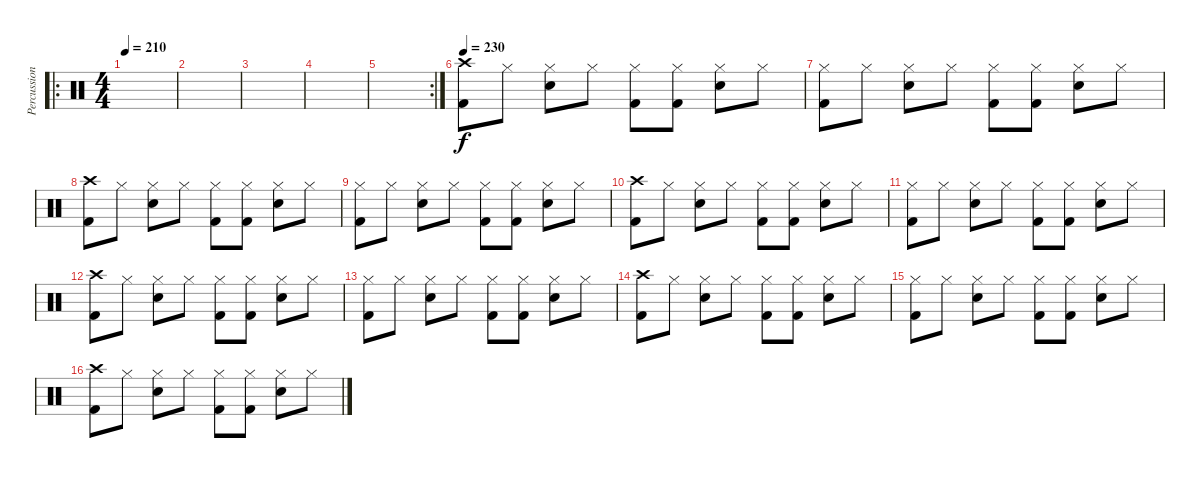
\track ("Percussions" "Percussion") {instrument percussion}
\staff {score}
\articulation defaults
\ro
\ts (4 4)
\tempo 210
\tempo 230
\tempo 210
\clef neutral
\ks c
|
|
|
|
\rc 2
|
\tempo 230
("Crash high (hit)" "Kick (hit) 2").8 "Hi-Hat (closed)".8 ("Hi-Hat (closed)" "Electric Snare (hit)").8 "Hi-Hat (closed)".8 ("Hi-Hat (closed)" "Kick (hit) 2").8 ("Hi-Hat (closed)" "Kick (hit) 2").8 ("Hi-Hat (closed)" "Electric Snare (hit)").8 "Hi-Hat (closed)".8 |
("Hi-Hat (closed)" "Kick (hit) 2").8 "Hi-Hat (closed)".8 ("Hi-Hat (closed)" "Electric Snare (hit)").8 "Hi-Hat (closed)".8 ("Hi-Hat (closed)" "Kick (hit) 2").8 ("Hi-Hat (closed)" "Kick (hit) 2").8 ("Hi-Hat (closed)" "Electric Snare (hit)").8 "Hi-Hat (closed)".8 |
("Crash high (hit)" "Kick (hit) 2").8 "Hi-Hat (closed)".8 ("Hi-Hat (closed)" "Electric Snare (hit)").8 "Hi-Hat (closed)".8 ("Hi-Hat (closed)" "Kick (hit) 2").8 ("Hi-Hat (closed)" "Kick (hit) 2").8 ("Hi-Hat (closed)" "Electric Snare (hit)").8 "Hi-Hat (closed)".8 |
("Hi-Hat (closed)" "Kick (hit) 2").8 "Hi-Hat (closed)".8 ("Hi-Hat (closed)" "Electric Snare (hit)").8 "Hi-Hat (closed)".8 ("Hi-Hat (closed)" "Kick (hit) 2").8 ("Hi-Hat (closed)" "Kick (hit) 2").8 ("Hi-Hat (closed)" "Electric Snare (hit)").8 "Hi-Hat (closed)".8 |
("Crash high (hit)" "Kick (hit) 2").8 "Hi-Hat (closed)".8 ("Hi-Hat (closed)" "Electric Snare (hit)").8 "Hi-Hat (closed)".8 ("Hi-Hat (closed)" "Kick (hit) 2").8 ("Hi-Hat (closed)" "Kick (hit) 2").8 ("Hi-Hat (closed)" "Electric Snare (hit)").8 "Hi-Hat (closed)".8 |
("Hi-Hat (closed)" "Kick (hit) 2").8 "Hi-Hat (closed)".8 ("Hi-Hat (closed)" "Electric Snare (hit)").8 "Hi-Hat (closed)".8 ("Hi-Hat (closed)" "Kick (hit) 2").8 ("Hi-Hat (closed)" "Kick (hit) 2").8 ("Hi-Hat (closed)" "Electric Snare (hit)").8 "Hi-Hat (closed)".8 |
("Crash high (hit)" "Kick (hit) 2").8 "Hi-Hat (closed)".8 ("Hi-Hat (closed)" "Electric Snare (hit)").8 "Hi-Hat (closed)".8 ("Hi-Hat (closed)" "Kick (hit) 2").8 ("Hi-Hat (closed)" "Kick (hit) 2").8 ("Hi-Hat (closed)" "Electric Snare (hit)").8 "Hi-Hat (closed)".8 |
("Hi-Hat (closed)" "Kick (hit) 2").8 "Hi-Hat (closed)".8 ("Hi-Hat (closed)" "Electric Snare (hit)").8 "Hi-Hat (closed)".8 ("Hi-Hat (closed)" "Kick (hit) 2").8 ("Hi-Hat (closed)" "Kick (hit) 2").8 ("Hi-Hat (closed)" "Electric Snare (hit)").8 "Hi-Hat (closed)".8 |
("Crash high (hit)" "Kick (hit) 2").8 "Hi-Hat (closed)".8 ("Hi-Hat (closed)" "Electric Snare (hit)").8 "Hi-Hat (closed)".8 ("Hi-Hat (closed)" "Kick (hit) 2").8 ("Hi-Hat (closed)" "Kick (hit) 2").8 ("Hi-Hat (closed)" "Electric Snare (hit)").8 "Hi-Hat (closed)".8 |
("Hi-Hat (closed)" "Kick (hit) 2").8 "Hi-Hat (closed)".8 ("Hi-Hat (closed)" "Electric Snare (hit)").8 "Hi-Hat (closed)".8 ("Hi-Hat (closed)" "Kick (hit) 2").8 ("Hi-Hat (closed)" "Kick (hit) 2").8 ("Hi-Hat (closed)" "Electric Snare (hit)").8 "Hi-Hat (closed)".8 |
("Crash high (hit)" "Kick (hit) 2").8 "Hi-Hat (closed)".8 ("Hi-Hat (closed)" "Electric Snare (hit)").8 "Hi-Hat (closed)".8 ("Hi-Hat (closed)" "Kick (hit) 2").8 ("Hi-Hat (closed)" "Kick (hit) 2").8 ("Hi-Hat (closed)" "Electric Snare (hit)").8 "Hi-Hat (closed)".8
